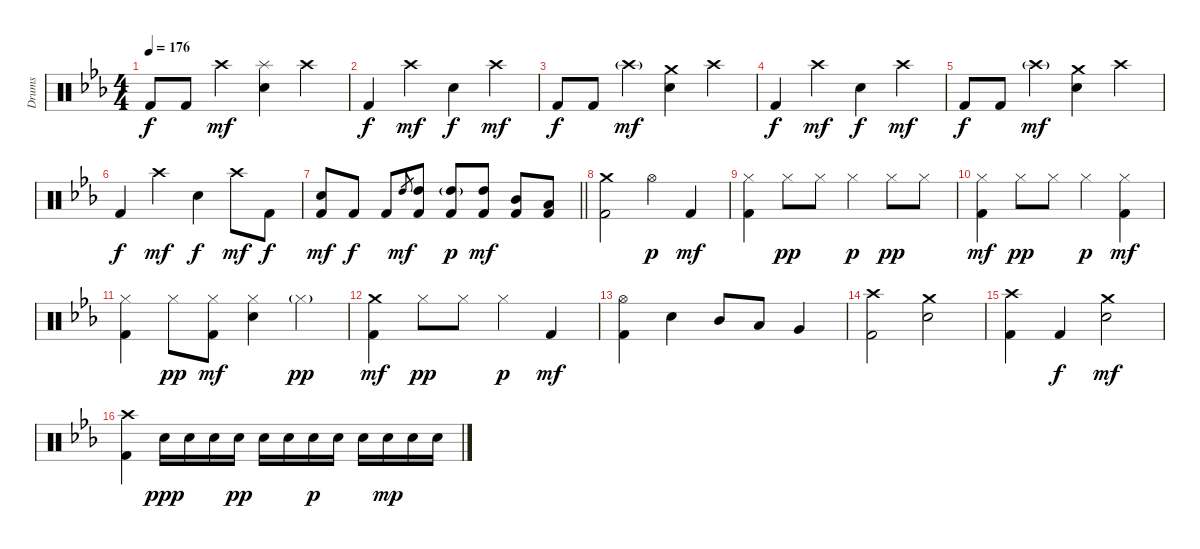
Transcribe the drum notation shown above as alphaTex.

\track ("Drums" "Drums") {instrument percussion}
\staff {score}
\articulation defaults
\ts (4 4)
\tempo 176
\clef neutral
\ks cminor "Kick (hit) 2".8{dy f} "Kick (hit) 2".8 "Crash high (hit)".4{dy mf}
("Splash (hit)" "Electric Snare (hit)").4 "Crash high (hit)".4 |
"Kick (hit) 2".4{dy f} "Crash high (hit)".4{dy mf} "Electric Snare (hit)".4{dy f} "Crash high (hit)".4{dy mf} |
"Kick (hit) 2".8{dy f} "Kick (hit) 2".8 "Crash high (hit)"{g}.4{dy mf} ("Crash medium (hit)" "Electric Snare (hit)").4 "Crash high (hit)".4 |
"Kick (hit) 2".4{dy f} "Crash high (hit)".4{dy mf} "Electric Snare (hit)".4{dy f} "Crash high (hit)".4{dy mf} |
"Kick (hit) 2".8{dy f} "Kick (hit) 2".8 "Crash high (hit)"{g}.4{dy mf} ("Crash medium (hit)" "Electric Snare (hit)").4 "Crash high (hit)".4 |
"Kick (hit) 2".4{dy f} "Crash high (hit)".4{dy mf} "Electric Snare (hit)".4{dy f} "Crash high (hit)".8{dy mf} "Kick (hit) 2".8{dy f} |
\barLineRight lightlight
("Electric Snare (hit)" "Kick (hit) 2").8{dy mf} "Kick (hit) 2".8{dy f} "Kick (hit) 2".8 "High Tom (hit)".8{gr dy mf} ("High Tom (hit)" "Kick (hit) 2").8 ("High Tom (hit)"{g} "Kick (hit) 2").8{dy p} ("High Tom (hit)" "Kick (hit) 2").8{dy mf} ("Mid Tom (hit)" "Kick (hit) 2").8 ("Low Tom (hit)" "Kick (hit) 2").8 |
\section ("" "")
("Crash medium (hit)" "Kick (hit) 2").2 "Hi-Hat (open)".4{dy p} "Kick (hit) 2".4{dy mf} |
("Hi-Hat (closed)" "Kick (hit) 2").4 "Hi-Hat (closed)".8{dy pp} "Hi-Hat (closed)".8 "Hi-Hat (closed)".4{dy p} "Hi-Hat (closed)".8{dy pp} "Hi-Hat (closed)".8 |
("Hi-Hat (closed)" "Kick (hit) 2").4{dy mf} "Hi-Hat (closed)".8{dy pp} "Hi-Hat (closed)".8 "Hi-Hat (closed)".4{dy p} ("Hi-Hat (closed)" "Kick (hit) 2").4{dy mf} |
("Hi-Hat (closed)" "Kick (hit) 2").4 "Hi-Hat (closed)".8{dy pp} ("Hi-Hat (closed)" "Kick (hit) 2").8{dy mf} ("Hi-Hat (closed)" "Electric Snare (hit)").4 "Hi-Hat (closed)"{g}.4{dy pp} |
("Crash medium (hit)" "Kick (hit) 2").4{dy mf} "Hi-Hat (closed)".8{dy pp} "Hi-Hat (closed)".8 "Hi-Hat (closed)".4{dy p} "Kick (hit) 2".4{dy mf} |
("Hi-Hat (open)" "Kick (hit) 2").4 "Electric Snare (hit)".4 "Mid Tom (hit)".8 "Low Tom (hit)".8 "Very Low Tom (hit)".4 |
("Crash high (hit)" "Kick (hit) 2").2 ("Crash medium (hit)" "Electric Snare (hit)").2 |
("Crash high (hit)" "Kick (hit) 2").4 "Kick (hit) 2".4{dy f} ("Crash medium (hit)" "Electric Snare (hit)").2{dy mf} |
("Crash high (hit)" "Kick (hit) 2").4 "Electric Snare (hit)".16{dy ppp} "Electric Snare (hit)".16 "Electric Snare (hit)".16 "Electric Snare (hit)".16{dy pp} "Electric Snare (hit)".16 "Electric Snare (hit)".16 "Electric Snare (hit)".16{dy p} "Electric Snare (hit)".16 "Electric Snare (hit)".16 "Electric Snare (hit)".16{dy mp} "Electric Snare (hit)".16 "Electric Snare (hit)".16
